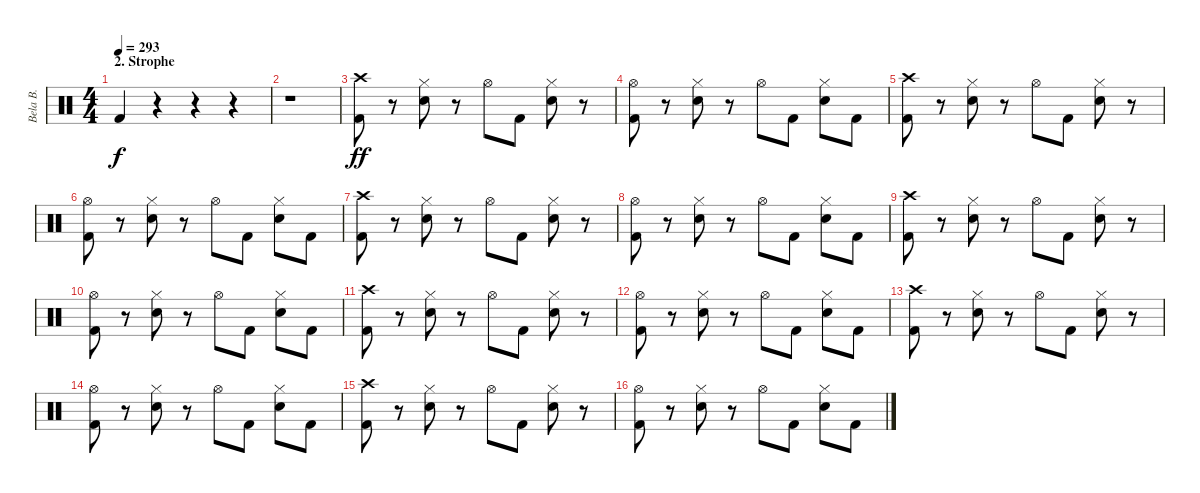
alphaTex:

\track ("Bela B." "Bela B.") {instrument percussion}
\staff {score}
\articulation defaults
\ts (4 4)
\section ("" "2. Strophe")
\tempo 293
\clef neutral
\ks c "Kick (hit) 2".4{dy f}
r.4 r.4 r.4 |
r.1 |
("Crash high (hit)" "Kick (hit) 2").8{dy ff} r.8 ("Hi-Hat (closed)" "Snare (hit) 2").8 r.8 "Hi-Hat (open)".8 "Kick (hit) 2".8 ("Hi-Hat (closed)" "Snare (hit) 2").8 r.8 |
("Hi-Hat (open)" "Kick (hit) 2").8 r.8 ("Hi-Hat (closed)" "Snare (hit) 2").8 r.8 "Hi-Hat (open)".8 "Kick (hit) 2".8 ("Hi-Hat (closed)" "Snare (hit) 2").8 "Kick (hit) 2".8 |
("Crash high (hit)" "Kick (hit) 2").8 r.8 ("Hi-Hat (closed)" "Snare (hit) 2").8 r.8 "Hi-Hat (open)".8 "Kick (hit) 2".8 ("Hi-Hat (closed)" "Snare (hit) 2").8 r.8 |
("Hi-Hat (open)" "Kick (hit) 2").8 r.8 ("Hi-Hat (closed)" "Snare (hit) 2").8 r.8 "Hi-Hat (open)".8 "Kick (hit) 2".8 ("Hi-Hat (closed)" "Snare (hit) 2").8 "Kick (hit) 2".8 |
("Crash high (hit)" "Kick (hit) 2").8 r.8 ("Hi-Hat (closed)" "Snare (hit) 2").8 r.8 "Hi-Hat (open)".8 "Kick (hit) 2".8 ("Hi-Hat (closed)" "Snare (hit) 2").8 r.8 |
("Hi-Hat (open)" "Kick (hit) 2").8 r.8 ("Hi-Hat (closed)" "Snare (hit) 2").8 r.8 "Hi-Hat (open)".8 "Kick (hit) 2".8 ("Hi-Hat (closed)" "Snare (hit) 2").8 "Kick (hit) 2".8 |
("Crash high (hit)" "Kick (hit) 2").8 r.8 ("Hi-Hat (closed)" "Snare (hit) 2").8 r.8 "Hi-Hat (open)".8 "Kick (hit) 2".8 ("Hi-Hat (closed)" "Snare (hit) 2").8 r.8 |
("Hi-Hat (open)" "Kick (hit) 2").8 r.8 ("Hi-Hat (closed)" "Snare (hit) 2").8 r.8 "Hi-Hat (open)".8 "Kick (hit) 2".8 ("Hi-Hat (closed)" "Snare (hit) 2").8 "Kick (hit) 2".8 |
("Crash high (hit)" "Kick (hit) 2").8 r.8 ("Hi-Hat (closed)" "Snare (hit) 2").8 r.8 "Hi-Hat (open)".8 "Kick (hit) 2".8 ("Hi-Hat (closed)" "Snare (hit) 2").8 r.8 |
("Hi-Hat (open)" "Kick (hit) 2").8 r.8 ("Hi-Hat (closed)" "Snare (hit) 2").8 r.8 "Hi-Hat (open)".8 "Kick (hit) 2".8 ("Hi-Hat (closed)" "Snare (hit) 2").8 "Kick (hit) 2".8 |
("Crash high (hit)" "Kick (hit) 2").8 r.8 ("Hi-Hat (closed)" "Snare (hit) 2").8 r.8 "Hi-Hat (open)".8 "Kick (hit) 2".8 ("Hi-Hat (closed)" "Snare (hit) 2").8 r.8 |
("Hi-Hat (open)" "Kick (hit) 2").8 r.8 ("Hi-Hat (closed)" "Snare (hit) 2").8 r.8 "Hi-Hat (open)".8 "Kick (hit) 2".8 ("Hi-Hat (closed)" "Snare (hit) 2").8 "Kick (hit) 2".8 |
("Crash high (hit)" "Kick (hit) 2").8 r.8 ("Hi-Hat (closed)" "Snare (hit) 2").8 r.8 "Hi-Hat (open)".8 "Kick (hit) 2".8 ("Hi-Hat (closed)" "Snare (hit) 2").8 r.8 |
("Hi-Hat (open)" "Kick (hit) 2").8 r.8 ("Hi-Hat (closed)" "Snare (hit) 2").8 r.8 "Hi-Hat (open)".8 "Kick (hit) 2".8 ("Hi-Hat (closed)" "Snare (hit) 2").8 "Kick (hit) 2".8
